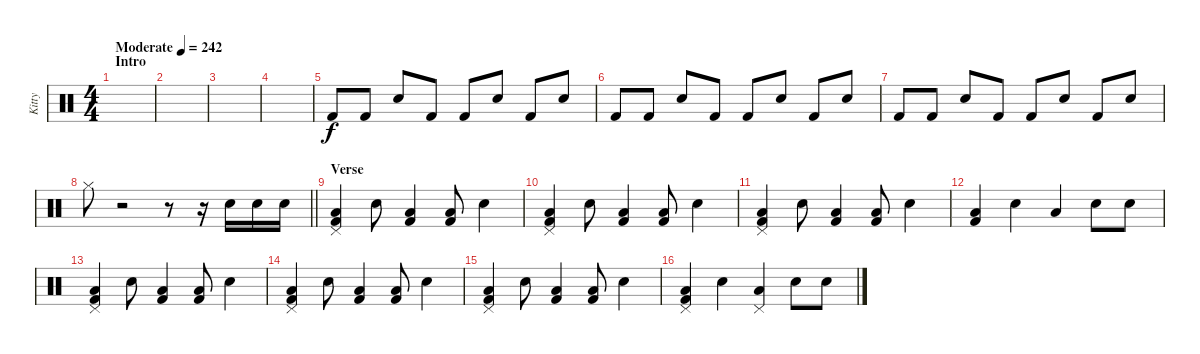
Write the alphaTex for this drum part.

\track ("Kitty" "Kitty") {instrument percussion}
\staff {score}
\articulation defaults
\ts (4 4)
\section ("" "Intro")
\tempo (242 "Moderate")
\clef neutral
\ks c
|
|
|
|
"Kick (hit) 2".8{volume 12} "Kick (hit) 2".8 "Snare (hit) 2".8 "Kick (hit) 2".8 "Kick (hit) 2".8 "Snare (hit) 2".8 "Kick (hit) 2".8 "Snare (hit) 2".8 |
"Kick (hit) 2".8{volume 12} "Kick (hit) 2".8 "Snare (hit) 2".8 "Kick (hit) 2".8 "Kick (hit) 2".8 "Snare (hit) 2".8 "Kick (hit) 2".8 "Snare (hit) 2".8 |
"Kick (hit) 2".8{volume 12} "Kick (hit) 2".8 "Snare (hit) 2".8 "Kick (hit) 2".8 "Kick (hit) 2".8 "Snare (hit) 2".8 "Kick (hit) 2".8 "Snare (hit) 2".8 |
\barLineRight lightlight "Hi-Hat (closed)".8{volume 12}
r.2 r.8 r.16 "Electric Snare (hit)".16 "Electric Snare (hit)".16 "Electric Snare (hit)".16 |
\section ("" "Verse")
("Pedal Hi-Hat (hit)" "Low Tom (hit)" "Kick (hit) 2").4{volume 16} "Electric Snare (hit)".8 ("Low Tom (hit)" "Kick (hit) 2").4 ("Low Tom (hit)" "Kick (hit) 2").8 "Electric Snare (hit)".4 |
("Pedal Hi-Hat (hit)" "Low Tom (hit)" "Kick (hit) 2").4 "Electric Snare (hit)".8 ("Low Tom (hit)" "Kick (hit) 2").4 ("Low Tom (hit)" "Kick (hit) 2").8 "Electric Snare (hit)".4 |
("Pedal Hi-Hat (hit)" "Low Tom (hit)" "Kick (hit) 2").4 "Electric Snare (hit)".8 ("Low Tom (hit)" "Kick (hit) 2").4 ("Low Tom (hit)" "Kick (hit) 2").8 "Electric Snare (hit)".4 |
("Low Tom (hit)" "Kick (hit) 2").4 "Electric Snare (hit)".4 "Low Tom (hit)".4 "Electric Snare (hit)".8 "Electric Snare (hit)".8 |
("Pedal Hi-Hat (hit)" "Low Tom (hit)" "Kick (hit) 2").4{volume 16} "Electric Snare (hit)".8 ("Low Tom (hit)" "Kick (hit) 2").4 ("Low Tom (hit)" "Kick (hit) 2").8 "Electric Snare (hit)".4 |
("Pedal Hi-Hat (hit)" "Low Tom (hit)" "Kick (hit) 2").4 "Electric Snare (hit)".8 ("Low Tom (hit)" "Kick (hit) 2").4 ("Low Tom (hit)" "Kick (hit) 2").8 "Electric Snare (hit)".4 |
("Pedal Hi-Hat (hit)" "Low Tom (hit)" "Kick (hit) 2").4 "Electric Snare (hit)".8 ("Low Tom (hit)" "Kick (hit) 2").4 ("Low Tom (hit)" "Kick (hit) 2").8 "Electric Snare (hit)".4 |
("Pedal Hi-Hat (hit)" "Low Tom (hit)" "Kick (hit) 2").4 "Electric Snare (hit)".4 ("Pedal Hi-Hat (hit)" "Low Tom (hit)").4 "Electric Snare (hit)".8 "Electric Snare (hit)".8
